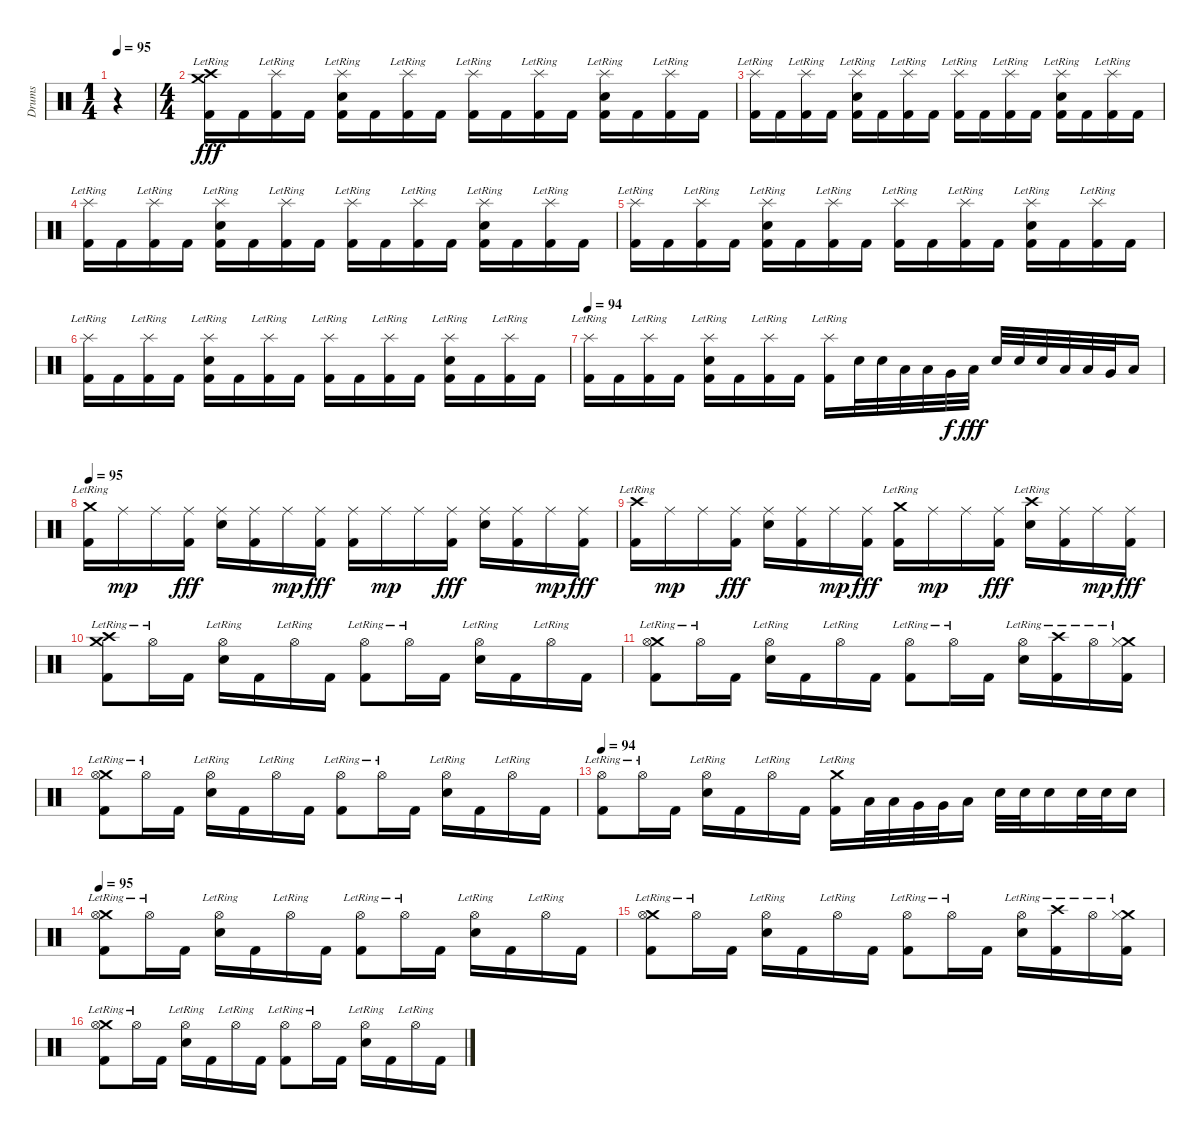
\track ("Drums" "Drums") {instrument percussion}
\staff {score}
\articulation defaults
\ts (1 4)
\tempo 95
\clef neutral
\ks c
r.4{dy fff} |
\ts (4 4)
("Crash high (hit)"{lr} "Crash medium (hit)"{lr} "Kick (hit) 2").16 "Kick (hit) 2".16 ("Splash (hit)"{lr} "Kick (hit) 2").16 "Kick (hit) 2".16 ("Splash (hit)"{lr} "Electric Snare (hit)" "Kick (hit) 2").16 "Kick (hit) 2".16 ("Splash (hit)"{lr} "Kick (hit) 2").16 "Kick (hit) 2".16 ("Splash (hit)"{lr} "Kick (hit) 2").16 "Kick (hit) 2".16 ("Splash (hit)"{lr} "Kick (hit) 2").16 "Kick (hit) 2".16 ("Splash (hit)"{lr} "Electric Snare (hit)" "Kick (hit) 2").16 "Kick (hit) 2".16 ("Splash (hit)"{lr} "Kick (hit) 2").16 "Kick (hit) 2".16 |
("Splash (hit)"{lr} "Kick (hit) 2").16 "Kick (hit) 2".16 ("Splash (hit)"{lr} "Kick (hit) 2").16 "Kick (hit) 2".16 ("Splash (hit)"{lr} "Electric Snare (hit)" "Kick (hit) 2").16 "Kick (hit) 2".16 ("Splash (hit)"{lr} "Kick (hit) 2").16 "Kick (hit) 2".16 ("Splash (hit)"{lr} "Kick (hit) 2").16 "Kick (hit) 2".16 ("Splash (hit)"{lr} "Kick (hit) 2").16 "Kick (hit) 2".16 ("Splash (hit)"{lr} "Electric Snare (hit)" "Kick (hit) 2").16 "Kick (hit) 2".16 ("Splash (hit)"{lr} "Kick (hit) 2").16 "Kick (hit) 2".16 |
("Splash (hit)"{lr} "Kick (hit) 2").16 "Kick (hit) 2".16 ("Splash (hit)"{lr} "Kick (hit) 2").16 "Kick (hit) 2".16 ("Splash (hit)"{lr} "Electric Snare (hit)" "Kick (hit) 2").16 "Kick (hit) 2".16 ("Splash (hit)"{lr} "Kick (hit) 2").16 "Kick (hit) 2".16 ("Splash (hit)"{lr} "Kick (hit) 2").16 "Kick (hit) 2".16 ("Splash (hit)"{lr} "Kick (hit) 2").16 "Kick (hit) 2".16 ("Splash (hit)"{lr} "Electric Snare (hit)" "Kick (hit) 2").16 "Kick (hit) 2".16 ("Splash (hit)"{lr} "Kick (hit) 2").16 "Kick (hit) 2".16 |
("Splash (hit)"{lr} "Kick (hit) 2").16 "Kick (hit) 2".16 ("Splash (hit)"{lr} "Kick (hit) 2").16 "Kick (hit) 2".16 ("Splash (hit)"{lr} "Electric Snare (hit)" "Kick (hit) 2").16 "Kick (hit) 2".16 ("Splash (hit)"{lr} "Kick (hit) 2").16 "Kick (hit) 2".16 ("Splash (hit)"{lr} "Kick (hit) 2").16 "Kick (hit) 2".16 ("Splash (hit)"{lr} "Kick (hit) 2").16 "Kick (hit) 2".16 ("Splash (hit)"{lr} "Electric Snare (hit)" "Kick (hit) 2").16 "Kick (hit) 2".16 ("Splash (hit)"{lr} "Kick (hit) 2").16 "Kick (hit) 2".16 |
("Splash (hit)"{lr} "Kick (hit) 2").16 "Kick (hit) 2".16 ("Splash (hit)"{lr} "Kick (hit) 2").16 "Kick (hit) 2".16 ("Splash (hit)"{lr} "Electric Snare (hit)" "Kick (hit) 2").16 "Kick (hit) 2".16 ("Splash (hit)"{lr} "Kick (hit) 2").16 "Kick (hit) 2".16 ("Splash (hit)"{lr} "Kick (hit) 2").16 "Kick (hit) 2".16 ("Splash (hit)"{lr} "Kick (hit) 2").16 "Kick (hit) 2".16 ("Splash (hit)"{lr} "Electric Snare (hit)" "Kick (hit) 2").16 "Kick (hit) 2".16 ("Splash (hit)"{lr} "Kick (hit) 2").16 "Kick (hit) 2".16 |
\tempo 94
("Splash (hit)"{lr} "Kick (hit) 2").16 "Kick (hit) 2".16 ("Splash (hit)"{lr} "Kick (hit) 2").16 "Kick (hit) 2".16 ("Splash (hit)"{lr} "Electric Snare (hit)" "Kick (hit) 2").16 "Kick (hit) 2".16 ("Splash (hit)"{lr} "Kick (hit) 2").16 "Kick (hit) 2".16 ("Splash (hit)"{lr} "Kick (hit) 2").16 "Electric Snare (hit)".32 "Electric Snare (hit)".32 "Low Tom (hit)".32 "Low Tom (hit)".32 "Very Low Tom (hit)".32{dy f} "Low Floor Tom (hit)".32{dy fff} "Electric Snare (hit)".32 "Electric Snare (hit)".32 "Electric Snare (hit)".32 "Low Tom (hit)".32 "Low Tom (hit)".32 "Very Low Tom (hit)".32 "Low Floor Tom (hit)".16 |
\tempo 95
("Crash medium (hit)"{lr} "Kick (hit) 2").16 "Ride (middle)".16{dy mp} "Ride (middle)".16 ("Ride (middle)" "Kick (hit) 2").16{dy fff} ("Ride (middle)" "Electric Snare (hit)").16 ("Ride (middle)" "Kick (hit) 2").16 "Ride (middle)".16{dy mp} ("Ride (middle)" "Kick (hit) 2").16{dy fff} ("Ride (middle)" "Kick (hit) 2").16 "Ride (middle)".16{dy mp} "Ride (middle)".16 ("Ride (middle)" "Kick (hit) 2").16{dy fff} ("Ride (middle)" "Electric Snare (hit)").16 ("Ride (middle)" "Kick (hit) 2").16 "Ride (middle)".16{dy mp} ("Ride (middle)" "Kick (hit) 2").16{dy fff} |
("Crash high (hit)"{lr} "Kick (hit) 2").16 "Ride (middle)".16{dy mp} "Ride (middle)".16 ("Ride (middle)" "Kick (hit) 2").16{dy fff} ("Ride (middle)" "Electric Snare (hit)").16 ("Ride (middle)" "Kick (hit) 2").16 "Ride (middle)".16{dy mp} ("Ride (middle)" "Kick (hit) 2").16{dy fff} ("Crash medium (hit)"{lr} "Kick (hit) 2").16 "Ride (middle)".16{dy mp} "Ride (middle)".16 ("Ride (middle)" "Kick (hit) 2").16{dy fff} ("Crash high (hit)"{lr} "Electric Snare (hit)").16 ("Ride (middle)" "Kick (hit) 2").16 "Ride (middle)".16{dy mp} ("Ride (middle)" "Kick (hit) 2").16{dy fff} |
("Crash high (hit)"{lr} "Crash medium (hit)"{lr} "Kick (hit) 2").8 "Hi-Hat (open)"{lr}.16 "Kick (hit) 2".16 ("Hi-Hat (open)"{lr} "Electric Snare (hit)").16 "Kick (hit) 2".16 "Hi-Hat (open)"{lr}.16 "Kick (hit) 2".16 ("Hi-Hat (open)"{lr} "Kick (hit) 2").8 "Hi-Hat (open)"{lr}.16 "Kick (hit) 2".16 ("Hi-Hat (open)"{lr} "Electric Snare (hit)").16 "Kick (hit) 2".16 "Hi-Hat (open)"{lr}.16 "Kick (hit) 2".16 |
("Crash medium (hit)"{lr} "Hi-Hat (open)"{lr} "Kick (hit) 2").8 "Hi-Hat (open)"{lr}.16 "Kick (hit) 2".16 ("Hi-Hat (open)"{lr} "Electric Snare (hit)").16 "Kick (hit) 2".16 "Hi-Hat (open)"{lr}.16 "Kick (hit) 2".16 ("Hi-Hat (open)"{lr} "Kick (hit) 2").8 "Hi-Hat (open)"{lr}.16 "Kick (hit) 2".16 ("Hi-Hat (open)"{lr} "Electric Snare (hit)").16 ("Crash high (hit)"{lr} "Kick (hit) 2").16 "Hi-Hat (open)"{lr}.16 ("Crash medium (hit)"{lr} "Hi-Hat (closed)" "Kick (hit) 2").16 |
("Crash medium (hit)"{lr} "Hi-Hat (open)"{lr} "Kick (hit) 2").8 "Hi-Hat (open)"{lr}.16 "Kick (hit) 2".16 ("Hi-Hat (open)"{lr} "Electric Snare (hit)").16 "Kick (hit) 2".16 "Hi-Hat (open)"{lr}.16 "Kick (hit) 2".16 ("Hi-Hat (open)"{lr} "Kick (hit) 2").8 "Hi-Hat (open)"{lr}.16 "Kick (hit) 2".16 ("Hi-Hat (open)"{lr} "Electric Snare (hit)").16 "Kick (hit) 2".16 "Hi-Hat (open)"{lr}.16 "Kick (hit) 2".16 |
\tempo 94
("Hi-Hat (open)"{lr} "Kick (hit) 2").8 "Hi-Hat (open)"{lr}.16 "Kick (hit) 2".16 ("Hi-Hat (open)"{lr} "Electric Snare (hit)").16 "Kick (hit) 2".16 "Hi-Hat (open)"{lr}.16 "Kick (hit) 2".16 ("Crash medium (hit)"{lr} "Kick (hit) 2").16 "Low Tom (hit)".32 "Low Tom (hit)".32 "Very Low Tom (hit)".32 "Very Low Tom (hit)".32 "Low Floor Tom (hit)".16 "Electric Snare (hit)".32 "Electric Snare (hit)".32 "Electric Snare (hit)".16 "Electric Snare (hit)".32 "Electric Snare (hit)".32 "Electric Snare (hit)".16 |
\tempo 95
("Crash medium (hit)"{lr} "Hi-Hat (open)"{lr} "Kick (hit) 2").8 "Hi-Hat (open)"{lr}.16 "Kick (hit) 2".16 ("Hi-Hat (open)"{lr} "Electric Snare (hit)").16 "Kick (hit) 2".16 "Hi-Hat (open)"{lr}.16 "Kick (hit) 2".16 ("Hi-Hat (open)"{lr} "Kick (hit) 2").8 "Hi-Hat (open)"{lr}.16 "Kick (hit) 2".16 ("Hi-Hat (open)"{lr} "Electric Snare (hit)").16 "Kick (hit) 2".16 "Hi-Hat (open)"{lr}.16 "Kick (hit) 2".16 |
("Crash medium (hit)"{lr} "Hi-Hat (open)"{lr} "Kick (hit) 2").8 "Hi-Hat (open)"{lr}.16 "Kick (hit) 2".16 ("Hi-Hat (open)"{lr} "Electric Snare (hit)").16 "Kick (hit) 2".16 "Hi-Hat (open)"{lr}.16 "Kick (hit) 2".16 ("Hi-Hat (open)"{lr} "Kick (hit) 2").8 "Hi-Hat (open)"{lr}.16 "Kick (hit) 2".16 ("Hi-Hat (open)"{lr} "Electric Snare (hit)").16 ("Crash high (hit)"{lr} "Kick (hit) 2").16 "Hi-Hat (open)"{lr}.16 ("Crash medium (hit)"{lr} "Hi-Hat (closed)" "Kick (hit) 2").16 |
("Crash medium (hit)"{lr} "Hi-Hat (open)"{lr} "Kick (hit) 2").8 "Hi-Hat (open)"{lr}.16 "Kick (hit) 2".16 ("Hi-Hat (open)"{lr} "Electric Snare (hit)").16 "Kick (hit) 2".16 "Hi-Hat (open)"{lr}.16 "Kick (hit) 2".16 ("Hi-Hat (open)"{lr} "Kick (hit) 2").8 "Hi-Hat (open)"{lr}.16 "Kick (hit) 2".16 ("Hi-Hat (open)"{lr} "Electric Snare (hit)").16 "Kick (hit) 2".16 "Hi-Hat (open)"{lr}.16 "Kick (hit) 2".16
